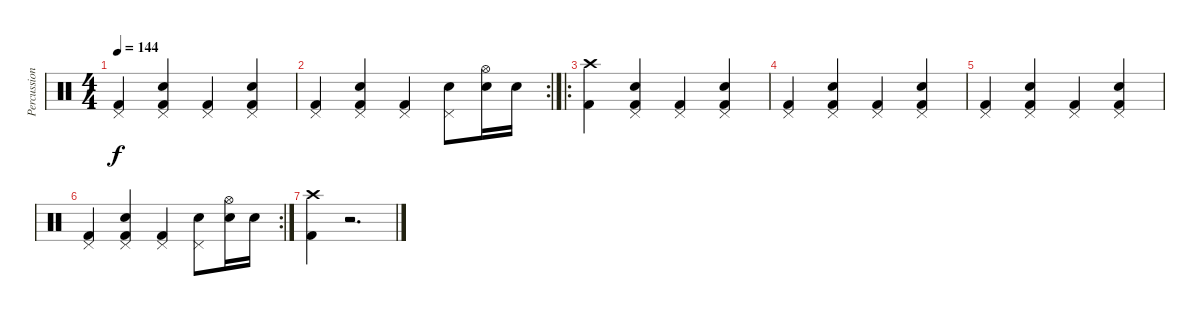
\track ("Percussion" "Percussion") {instrument percussion}
\staff {score}
\articulation defaults
\ts (4 4)
\tempo 144
\clef neutral
\ks c
("Pedal Hi-Hat (hit)" "Kick (hit) 2").4{dy f} ("Pedal Hi-Hat (hit)" "Electric Snare (hit)" "Kick (hit) 2").4 ("Pedal Hi-Hat (hit)" "Kick (hit) 2").4 ("Pedal Hi-Hat (hit)" "Electric Snare (hit)" "Kick (hit) 2").4 |
\rc 2
("Pedal Hi-Hat (hit)" "Kick (hit) 2").4 ("Pedal Hi-Hat (hit)" "Electric Snare (hit)" "Kick (hit) 2").4 ("Pedal Hi-Hat (hit)" "Kick (hit) 2").4 ("Pedal Hi-Hat (hit)" "Electric Snare (hit)").8 ("Hi-Hat (open)" "Electric Snare (hit)").16 "Electric Snare (hit)".16 |
\ro
("Crash high (hit)" "Kick (hit) 2").4 ("Pedal Hi-Hat (hit)" "Electric Snare (hit)" "Kick (hit) 2").4 ("Pedal Hi-Hat (hit)" "Kick (hit) 2").4 ("Pedal Hi-Hat (hit)" "Electric Snare (hit)" "Kick (hit) 2").4 |
("Pedal Hi-Hat (hit)" "Kick (hit) 2").4 ("Pedal Hi-Hat (hit)" "Electric Snare (hit)" "Kick (hit) 2").4 ("Pedal Hi-Hat (hit)" "Kick (hit) 2").4 ("Pedal Hi-Hat (hit)" "Electric Snare (hit)" "Kick (hit) 2").4 |
("Pedal Hi-Hat (hit)" "Kick (hit) 2").4 ("Pedal Hi-Hat (hit)" "Electric Snare (hit)" "Kick (hit) 2").4 ("Pedal Hi-Hat (hit)" "Kick (hit) 2").4 ("Pedal Hi-Hat (hit)" "Electric Snare (hit)" "Kick (hit) 2").4 |
\rc 2
("Pedal Hi-Hat (hit)" "Kick (hit) 2").4 ("Pedal Hi-Hat (hit)" "Electric Snare (hit)" "Kick (hit) 2").4 ("Pedal Hi-Hat (hit)" "Kick (hit) 2").4 ("Pedal Hi-Hat (hit)" "Electric Snare (hit)").8 ("Hi-Hat (open)" "Electric Snare (hit)").16 "Electric Snare (hit)".16 |
("Crash high (hit)" "Kick (hit) 2").4 r.2{d}
